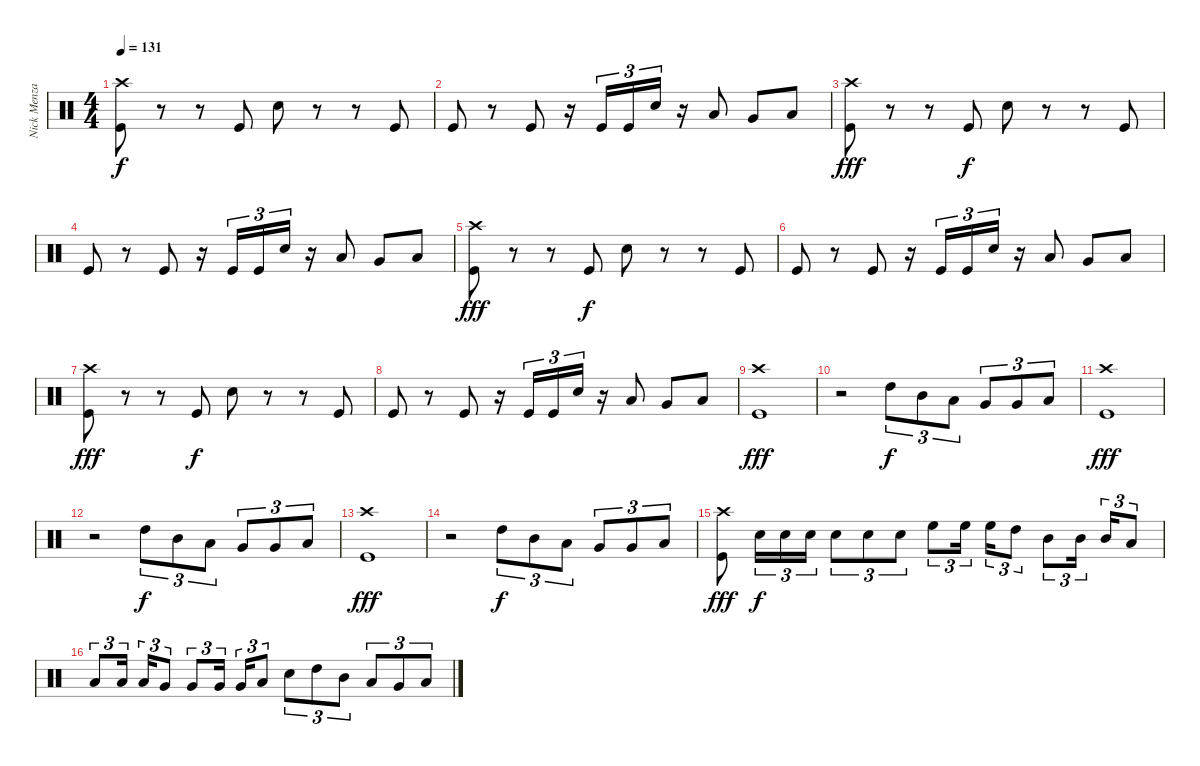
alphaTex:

\track ("Nick Menza" "Nick Menza") {instrument percussion}
\staff {score}
\articulation defaults
\ts (4 4)
\tempo 131
\clef neutral
\ks c
("Crash high (hit)" "Kick (hit)").8{dy f} r.8 r.8 "Kick (hit)".8 "Snare (hit) 2".8 r.8 r.8 "Kick (hit)".8 |
"Kick (hit)".8 r.8 "Kick (hit)".8 r.16 "Kick (hit)".16{tu (3 2)} "Kick (hit)".16{tu (3 2)} "Snare (hit) 2".16{tu (3 2)} r.16 "Low Tom (hit)".8 "Very Low Tom (hit)".8 "Low Floor Tom (hit)".8 |
("Crash high (hit)" "Kick (hit)").8{dy fff} r.8 r.8 "Kick (hit)".8{dy f} "Snare (hit) 2".8 r.8 r.8 "Kick (hit)".8 |
"Kick (hit)".8 r.8 "Kick (hit)".8 r.16 "Kick (hit)".16{tu (3 2)} "Kick (hit)".16{tu (3 2)} "Snare (hit) 2".16{tu (3 2)} r.16 "Low Tom (hit)".8 "Very Low Tom (hit)".8 "Low Floor Tom (hit)".8 |
("Crash high (hit)" "Kick (hit)").8{dy fff} r.8 r.8 "Kick (hit)".8{dy f} "Snare (hit) 2".8 r.8 r.8 "Kick (hit)".8 |
"Kick (hit)".8 r.8 "Kick (hit)".8 r.16 "Kick (hit)".16{tu (3 2)} "Kick (hit)".16{tu (3 2)} "Snare (hit) 2".16{tu (3 2)} r.16 "Low Tom (hit)".8 "Very Low Tom (hit)".8 "Low Floor Tom (hit)".8 |
("Crash high (hit)" "Kick (hit)").8{dy fff} r.8 r.8 "Kick (hit)".8{dy f} "Snare (hit) 2".8 r.8 r.8 "Kick (hit)".8 |
"Kick (hit)".8 r.8 "Kick (hit)".8 r.16 "Kick (hit)".16{tu (3 2)} "Kick (hit)".16{tu (3 2)} "Snare (hit) 2".16{tu (3 2)} r.16 "Low Tom (hit)".8 "Very Low Tom (hit)".8 "Low Floor Tom (hit)".8 |
("Crash high (hit)" "Kick (hit)").1{dy fff} |
r.2 "High Tom (hit)".8{tu (3 2) dy f} "Mid Tom (hit)".8{tu (3 2)} "Low Tom (hit)".8{tu (3 2)} "Very Low Tom (hit)".8{tu (3 2)} "Very Low Tom (hit)".8{tu (3 2)} "Low Floor Tom (hit)".8{tu (3 2)} |
("Crash high (hit)" "Kick (hit)").1{dy fff} |
r.2 "High Tom (hit)".8{tu (3 2) dy f} "Mid Tom (hit)".8{tu (3 2)} "Low Tom (hit)".8{tu (3 2)} "Very Low Tom (hit)".8{tu (3 2)} "Very Low Tom (hit)".8{tu (3 2)} "Low Floor Tom (hit)".8{tu (3 2)} |
("Crash high (hit)" "Kick (hit)").1{dy fff} |
r.2 "High Tom (hit)".8{tu (3 2) dy f} "Mid Tom (hit)".8{tu (3 2)} "Low Tom (hit)".8{tu (3 2)} "Very Low Tom (hit)".8{tu (3 2)} "Very Low Tom (hit)".8{tu (3 2)} "Low Floor Tom (hit)".8{tu (3 2)} |
("Crash high (hit)" "Kick (hit)").8{dy fff} "Snare (hit) 2".16{tu (3 2) dy f} "Snare (hit) 2".16{tu (3 2)} "Snare (hit) 2".16{tu (3 2)} "Snare (hit) 2".8{tu (3 2)} "Snare (hit) 2".8{tu (3 2)} "Snare (hit) 2".8{tu (3 2)} "High Floor Tom (hit)".8{tu (3 2)} "High Floor Tom (hit)".16{tu (3 2)} "High Floor Tom (hit)".16{tu (3 2)} "High Tom (hit)".8{tu (3 2)} "Mid Tom (hit)".8{tu (3 2)} "Mid Tom (hit)".16{tu (3 2)} "Mid Tom (hit)".16{tu (3 2)} "Low Tom (hit)".8{tu (3 2)} |
"Low Tom (hit)".8{tu (3 2)} "Low Tom (hit)".16{tu (3 2)} "Low Tom (hit)".16{tu (3 2)} "Very Low Tom (hit)".8{tu (3 2)} "Very Low Tom (hit)".8{tu (3 2)} "Very Low Tom (hit)".16{tu (3 2)} "Very Low Tom (hit)".16{tu (3 2)} "Low Floor Tom (hit)".8{tu (3 2)} "Snare (hit) 2".8{tu (3 2)} "High Tom (hit)".8{tu (3 2)} "Mid Tom (hit)".8{tu (3 2)} "Low Tom (hit)".8{tu (3 2)} "Very Low Tom (hit)".8{tu (3 2)} "Low Floor Tom (hit)".8{tu (3 2)}
